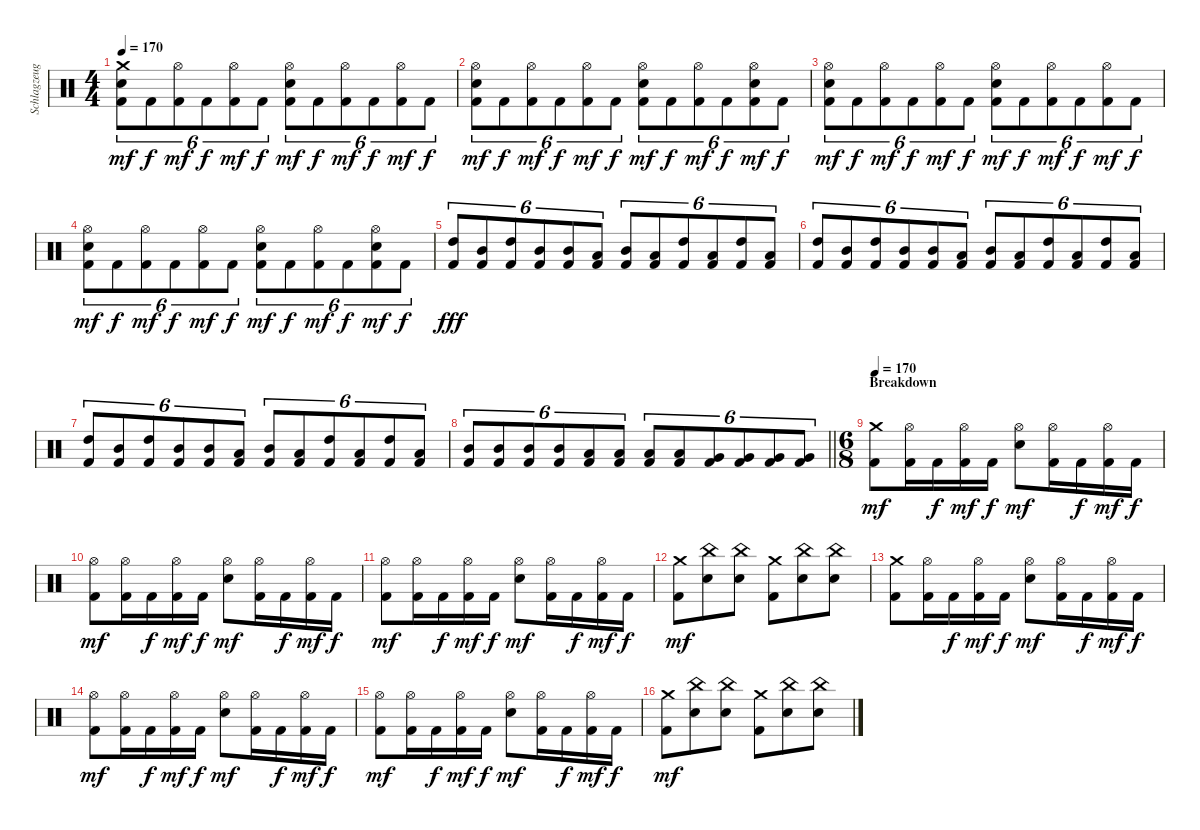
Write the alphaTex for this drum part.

\track ("Schlagzeug" "Schlagzeug") {instrument percussion}
\staff {score}
\articulation defaults
\ts (4 4)
\tempo 170
\clef neutral
\ks c
("Crash medium (hit)" "Electric Snare (hit)" "Kick (hit) 2").8{tu (6 4) dy mf} "Kick (hit) 2".8{tu (6 4) dy f} ("Hi-Hat (open)" "Kick (hit) 2").8{tu (6 4) dy mf} "Kick (hit) 2".8{tu (6 4) dy f} ("Hi-Hat (open)" "Kick (hit) 2").8{tu (6 4) dy mf} "Kick (hit) 2".8{tu (6 4) dy f} ("Hi-Hat (open)" "Electric Snare (hit)" "Kick (hit) 2").8{tu (6 4) dy mf} "Kick (hit) 2".8{tu (6 4) dy f} ("Hi-Hat (open)" "Kick (hit) 2").8{tu (6 4) dy mf} "Kick (hit) 2".8{tu (6 4) dy f} ("Hi-Hat (open)" "Kick (hit) 2").8{tu (6 4) dy mf} "Kick (hit) 2".8{tu (6 4) dy f} |
("Hi-Hat (open)" "Electric Snare (hit)" "Kick (hit) 2").8{tu (6 4) dy mf} "Kick (hit) 2".8{tu (6 4) dy f} ("Hi-Hat (open)" "Kick (hit) 2").8{tu (6 4) dy mf} "Kick (hit) 2".8{tu (6 4) dy f} ("Hi-Hat (open)" "Kick (hit) 2").8{tu (6 4) dy mf} "Kick (hit) 2".8{tu (6 4) dy f} ("Hi-Hat (open)" "Electric Snare (hit)" "Kick (hit) 2").8{tu (6 4) dy mf} "Kick (hit) 2".8{tu (6 4) dy f} ("Hi-Hat (open)" "Kick (hit) 2").8{tu (6 4) dy mf} "Kick (hit) 2".8{tu (6 4) dy f} ("Hi-Hat (open)" "Electric Snare (hit)" "Kick (hit) 2").8{tu (6 4) dy mf} "Kick (hit) 2".8{tu (6 4) dy f} |
("Hi-Hat (open)" "Electric Snare (hit)" "Kick (hit) 2").8{tu (6 4) dy mf} "Kick (hit) 2".8{tu (6 4) dy f} ("Hi-Hat (open)" "Kick (hit) 2").8{tu (6 4) dy mf} "Kick (hit) 2".8{tu (6 4) dy f} ("Hi-Hat (open)" "Kick (hit) 2").8{tu (6 4) dy mf} "Kick (hit) 2".8{tu (6 4) dy f} ("Hi-Hat (open)" "Electric Snare (hit)" "Kick (hit) 2").8{tu (6 4) dy mf} "Kick (hit) 2".8{tu (6 4) dy f} ("Hi-Hat (open)" "Kick (hit) 2").8{tu (6 4) dy mf} "Kick (hit) 2".8{tu (6 4) dy f} ("Hi-Hat (open)" "Kick (hit) 2").8{tu (6 4) dy mf} "Kick (hit) 2".8{tu (6 4) dy f} |
("Hi-Hat (open)" "Electric Snare (hit)" "Kick (hit) 2").8{tu (6 4) dy mf} "Kick (hit) 2".8{tu (6 4) dy f} ("Hi-Hat (open)" "Kick (hit) 2").8{tu (6 4) dy mf} "Kick (hit) 2".8{tu (6 4) dy f} ("Hi-Hat (open)" "Kick (hit) 2").8{tu (6 4) dy mf} "Kick (hit) 2".8{tu (6 4) dy f} ("Hi-Hat (open)" "Electric Snare (hit)" "Kick (hit) 2").8{tu (6 4) dy mf} "Kick (hit) 2".8{tu (6 4) dy f} ("Hi-Hat (open)" "Kick (hit) 2").8{tu (6 4) dy mf} "Kick (hit) 2".8{tu (6 4) dy f} ("Hi-Hat (open)" "Electric Snare (hit)" "Kick (hit) 2").8{tu (6 4) dy mf} "Kick (hit) 2".8{tu (6 4) dy f} |
("High Tom (hit)" "Kick (hit) 2").8{tu (6 4) dy fff} ("Mid Tom (hit)" "Kick (hit) 2").8{tu (6 4)} ("High Tom (hit)" "Kick (hit) 2").8{tu (6 4)} ("Mid Tom (hit)" "Kick (hit) 2").8{tu (6 4)} ("Mid Tom (hit)" "Kick (hit) 2").8{tu (6 4)} ("Low Tom (hit)" "Kick (hit) 2").8{tu (6 4)} ("Mid Tom (hit)" "Kick (hit) 2").8{tu (6 4)} ("Low Tom (hit)" "Kick (hit) 2").8{tu (6 4)} ("High Tom (hit)" "Kick (hit) 2").8{tu (6 4)} ("Low Tom (hit)" "Kick (hit) 2").8{tu (6 4)} ("High Tom (hit)" "Kick (hit) 2").8{tu (6 4)} ("Low Tom (hit)" "Kick (hit) 2").8{tu (6 4)} |
("High Tom (hit)" "Kick (hit) 2").8{tu (6 4)} ("Mid Tom (hit)" "Kick (hit) 2").8{tu (6 4)} ("High Tom (hit)" "Kick (hit) 2").8{tu (6 4)} ("Mid Tom (hit)" "Kick (hit) 2").8{tu (6 4)} ("Mid Tom (hit)" "Kick (hit) 2").8{tu (6 4)} ("Low Tom (hit)" "Kick (hit) 2").8{tu (6 4)} ("Mid Tom (hit)" "Kick (hit) 2").8{tu (6 4)} ("Low Tom (hit)" "Kick (hit) 2").8{tu (6 4)} ("High Tom (hit)" "Kick (hit) 2").8{tu (6 4)} ("Low Tom (hit)" "Kick (hit) 2").8{tu (6 4)} ("High Tom (hit)" "Kick (hit) 2").8{tu (6 4)} ("Low Tom (hit)" "Kick (hit) 2").8{tu (6 4)} |
("High Tom (hit)" "Kick (hit) 2").8{tu (6 4)} ("Mid Tom (hit)" "Kick (hit) 2").8{tu (6 4)} ("High Tom (hit)" "Kick (hit) 2").8{tu (6 4)} ("Mid Tom (hit)" "Kick (hit) 2").8{tu (6 4)} ("Mid Tom (hit)" "Kick (hit) 2").8{tu (6 4)} ("Low Tom (hit)" "Kick (hit) 2").8{tu (6 4)} ("Mid Tom (hit)" "Kick (hit) 2").8{tu (6 4)} ("Low Tom (hit)" "Kick (hit) 2").8{tu (6 4)} ("High Tom (hit)" "Kick (hit) 2").8{tu (6 4)} ("Low Tom (hit)" "Kick (hit) 2").8{tu (6 4)} ("High Tom (hit)" "Kick (hit) 2").8{tu (6 4)} ("Low Tom (hit)" "Kick (hit) 2").8{tu (6 4)} |
\barLineRight lightlight
("Mid Tom (hit)" "Kick (hit) 2").8{tu (6 4)} ("Mid Tom (hit)" "Kick (hit) 2").8{tu (6 4)} ("Mid Tom (hit)" "Kick (hit) 2").8{tu (6 4)} ("Mid Tom (hit)" "Kick (hit) 2").8{tu (6 4)} ("Low Tom (hit)" "Kick (hit) 2").8{tu (6 4)} ("Low Tom (hit)" "Kick (hit) 2").8{tu (6 4)} ("Low Tom (hit)" "Kick (hit) 2").8{tu (6 4)} ("Low Tom (hit)" "Kick (hit) 2").8{tu (6 4)} ("Very Low Tom (hit)" "Kick (hit) 2").8{tu (6 4)} ("Very Low Tom (hit)" "Kick (hit) 2").8{tu (6 4)} ("Very Low Tom (hit)" "Kick (hit) 2").8{tu (6 4)} ("Very Low Tom (hit)" "Kick (hit) 2").8{tu (6 4)} |
\ts (6 8)
\section ("" "Breakdown")
\tempo 170
("Crash medium (hit)" "Kick (hit) 2").8{dy mf} ("Hi-Hat (open)" "Kick (hit) 2").16 "Kick (hit) 2".16{dy f} ("Hi-Hat (open)" "Kick (hit) 2").16{dy mf} "Kick (hit) 2".16{dy f} ("Hi-Hat (open)" "Electric Snare (hit)").8{dy mf} ("Hi-Hat (open)" "Kick (hit) 2").16 "Kick (hit) 2".16{dy f} ("Hi-Hat (open)" "Kick (hit) 2").16{dy mf} "Kick (hit) 2".16{dy f} |
("Hi-Hat (open)" "Kick (hit) 2").8{dy mf} ("Hi-Hat (open)" "Kick (hit) 2").16 "Kick (hit) 2".16{dy f} ("Hi-Hat (open)" "Kick (hit) 2").16{dy mf} "Kick (hit) 2".16{dy f} ("Hi-Hat (open)" "Electric Snare (hit)").8{dy mf} ("Hi-Hat (open)" "Kick (hit) 2").16 "Kick (hit) 2".16{dy f} ("Hi-Hat (open)" "Kick (hit) 2").16{dy mf} "Kick (hit) 2".16{dy f} |
("Hi-Hat (open)" "Kick (hit) 2").8{dy mf} ("Hi-Hat (open)" "Kick (hit) 2").16 "Kick (hit) 2".16{dy f} ("Hi-Hat (open)" "Kick (hit) 2").16{dy mf} "Kick (hit) 2".16{dy f} ("Hi-Hat (open)" "Electric Snare (hit)").8{dy mf} ("Hi-Hat (open)" "Kick (hit) 2").16 "Kick (hit) 2".16{dy f} ("Hi-Hat (open)" "Kick (hit) 2").16{dy mf} "Kick (hit) 2".16{dy f} |
("Crash medium (hit)" "Kick (hit) 2").8{dy mf} ("China (hit)" "Electric Snare (hit)").8 ("China (hit)" "Electric Snare (hit)").8 ("Crash medium (hit)" "Kick (hit) 2").8 ("China (hit)" "Electric Snare (hit)").8 ("China (hit)" "Electric Snare (hit)").8 |
("Crash medium (hit)" "Kick (hit) 2").8 ("Hi-Hat (open)" "Kick (hit) 2").16 "Kick (hit) 2".16{dy f} ("Hi-Hat (open)" "Kick (hit) 2").16{dy mf} "Kick (hit) 2".16{dy f} ("Hi-Hat (open)" "Electric Snare (hit)").8{dy mf} ("Hi-Hat (open)" "Kick (hit) 2").16 "Kick (hit) 2".16{dy f} ("Hi-Hat (open)" "Kick (hit) 2").16{dy mf} "Kick (hit) 2".16{dy f} |
("Hi-Hat (open)" "Kick (hit) 2").8{dy mf} ("Hi-Hat (open)" "Kick (hit) 2").16 "Kick (hit) 2".16{dy f} ("Hi-Hat (open)" "Kick (hit) 2").16{dy mf} "Kick (hit) 2".16{dy f} ("Hi-Hat (open)" "Electric Snare (hit)").8{dy mf} ("Hi-Hat (open)" "Kick (hit) 2").16 "Kick (hit) 2".16{dy f} ("Hi-Hat (open)" "Kick (hit) 2").16{dy mf} "Kick (hit) 2".16{dy f} |
("Hi-Hat (open)" "Kick (hit) 2").8{dy mf} ("Hi-Hat (open)" "Kick (hit) 2").16 "Kick (hit) 2".16{dy f} ("Hi-Hat (open)" "Kick (hit) 2").16{dy mf} "Kick (hit) 2".16{dy f} ("Hi-Hat (open)" "Electric Snare (hit)").8{dy mf} ("Hi-Hat (open)" "Kick (hit) 2").16 "Kick (hit) 2".16{dy f} ("Hi-Hat (open)" "Kick (hit) 2").16{dy mf} "Kick (hit) 2".16{dy f} |
("Crash medium (hit)" "Kick (hit) 2").8{dy mf} ("China (hit)" "Electric Snare (hit)").8 ("China (hit)" "Electric Snare (hit)").8 ("Crash medium (hit)" "Kick (hit) 2").8 ("China (hit)" "Electric Snare (hit)").8 ("China (hit)" "Electric Snare (hit)").8
